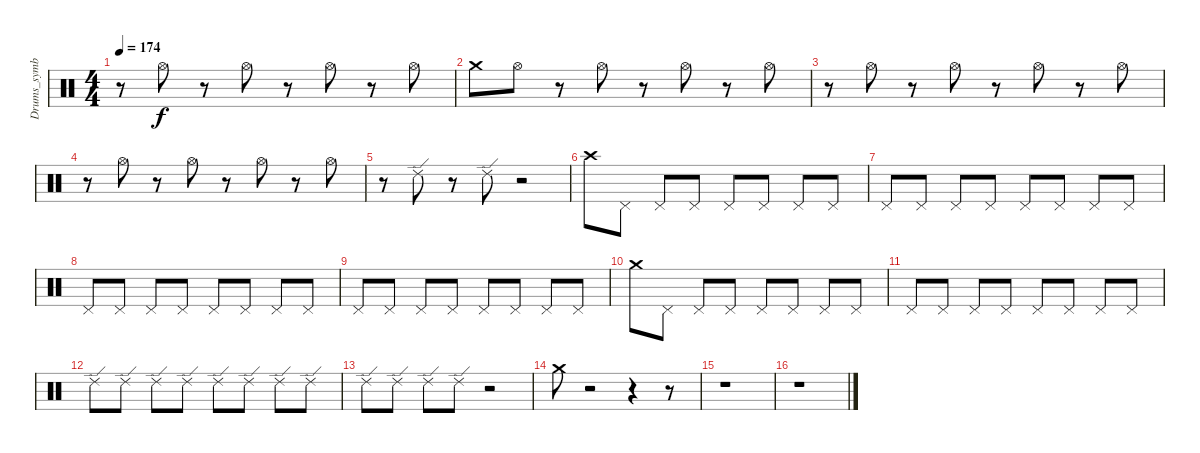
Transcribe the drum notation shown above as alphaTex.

\track ("Drums_symbal" "Drums_symb") {instrument percussion}
\staff {score}
\articulation defaults
\ts (4 4)
\tempo 174
\clef neutral
\ks c
r.8{dy f} "Hi-Hat (open)".8 r.8 "Hi-Hat (open)".8 r.8 "Hi-Hat (open)".8 r.8 "Hi-Hat (open)".8 |
"Crash medium (hit)".8 "Hi-Hat (open)".8 r.8 "Hi-Hat (open)".8 r.8 "Hi-Hat (open)".8 r.8 "Hi-Hat (open)".8 |
r.8 "Hi-Hat (open)".8 r.8 "Hi-Hat (open)".8 r.8 "Hi-Hat (open)".8 r.8 "Hi-Hat (open)".8 |
r.8 "Hi-Hat (open)".8 r.8 "Hi-Hat (open)".8 r.8 "Hi-Hat (open)".8 r.8 "Hi-Hat (open)".8 |
r.8 "Ride (edge) 2".8 r.8 "Ride (edge) 2".8 r.2 |
"Crash high (hit)".8 "Pedal Hi-Hat (hit)".8 "Pedal Hi-Hat (hit)".8 "Pedal Hi-Hat (hit)".8 "Pedal Hi-Hat (hit)".8 "Pedal Hi-Hat (hit)".8 "Pedal Hi-Hat (hit)".8 "Pedal Hi-Hat (hit)".8 |
"Pedal Hi-Hat (hit)".8 "Pedal Hi-Hat (hit)".8 "Pedal Hi-Hat (hit)".8 "Pedal Hi-Hat (hit)".8 "Pedal Hi-Hat (hit)".8 "Pedal Hi-Hat (hit)".8 "Pedal Hi-Hat (hit)".8 "Pedal Hi-Hat (hit)".8 |
"Pedal Hi-Hat (hit)".8 "Pedal Hi-Hat (hit)".8 "Pedal Hi-Hat (hit)".8 "Pedal Hi-Hat (hit)".8 "Pedal Hi-Hat (hit)".8 "Pedal Hi-Hat (hit)".8 "Pedal Hi-Hat (hit)".8 "Pedal Hi-Hat (hit)".8 |
"Pedal Hi-Hat (hit)".8 "Pedal Hi-Hat (hit)".8 "Pedal Hi-Hat (hit)".8 "Pedal Hi-Hat (hit)".8 "Pedal Hi-Hat (hit)".8 "Pedal Hi-Hat (hit)".8 "Pedal Hi-Hat (hit)".8 "Pedal Hi-Hat (hit)".8 |
"Crash medium (hit)".8 "Pedal Hi-Hat (hit)".8 "Pedal Hi-Hat (hit)".8 "Pedal Hi-Hat (hit)".8 "Pedal Hi-Hat (hit)".8 "Pedal Hi-Hat (hit)".8 "Pedal Hi-Hat (hit)".8 "Pedal Hi-Hat (hit)".8 |
"Pedal Hi-Hat (hit)".8 "Pedal Hi-Hat (hit)".8 "Pedal Hi-Hat (hit)".8 "Pedal Hi-Hat (hit)".8 "Pedal Hi-Hat (hit)".8 "Pedal Hi-Hat (hit)".8 "Pedal Hi-Hat (hit)".8 "Pedal Hi-Hat (hit)".8 |
"Ride (edge) 2".8 "Ride (edge) 2".8 "Ride (edge) 2".8 "Ride (edge) 2".8 "Ride (edge) 2".8 "Ride (edge) 2".8 "Ride (edge) 2".8 "Ride (edge) 2".8 |
"Ride (edge) 2".8 "Ride (edge) 2".8 "Ride (edge) 2".8 "Ride (edge) 2".8 r.2 |
"Crash medium (hit)".8 r.2 r.4 r.8 |
r.1 |
r.1
